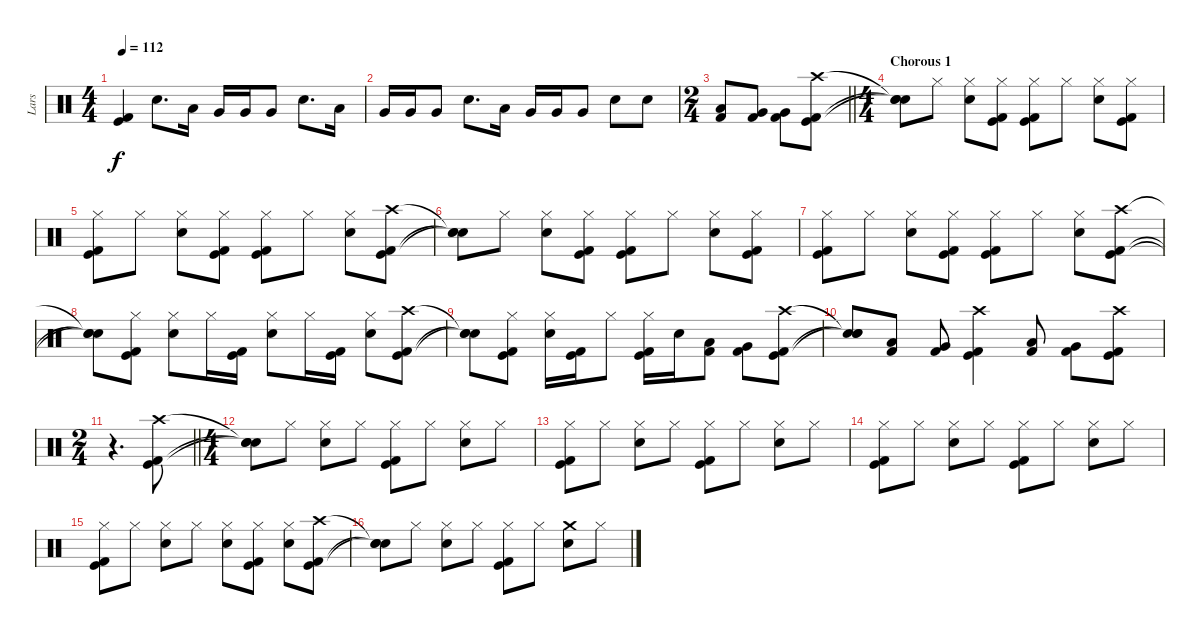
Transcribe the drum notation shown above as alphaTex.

\track ("Lars" "Lars") {instrument percussion}
\staff {score}
\articulation defaults
\ts (4 4)
\tempo 112
\clef neutral
\ks c
("Kick (hit)" "Kick (hit) 2").4{dy f} "Electric Snare (hit)".8{d} "Low Tom (hit)".16 "Very Low Tom (hit)".16 "Very Low Tom (hit)".16 "Very Low Tom (hit)".8 "Electric Snare (hit)".8{d} "Low Tom (hit)".16 |
"Very Low Tom (hit)".16 "Very Low Tom (hit)".16 "Very Low Tom (hit)".8 "Electric Snare (hit)".8{d} "Low Tom (hit)".16 "Very Low Tom (hit)".16 "Very Low Tom (hit)".16 "Very Low Tom (hit)".8 "Electric Snare (hit)".8 "Electric Snare (hit)".8 |
\ts (2 4)
\barLineRight lightlight
("Kick (hit) 2" "Low Tom (hit)").8 ("Kick (hit) 2" "Very Low Tom (hit)").8 ("Kick (hit) 2" "Very Low Tom (hit)").8 ("Crash high (hit)" "Kick (hit)" "Kick (hit) 2").8 |
\ts (4 4)
\section ("" "Chorous 1")
("Snare (hit)"{t} "Snare (hit)"{t} "Snare (hit)"{t}).8 "Hi-Hat (closed)".8 ("Hi-Hat (closed)" "Electric Snare (hit)").8 ("Hi-Hat (closed)" "Kick (hit)" "Kick (hit) 2").8 ("Hi-Hat (closed)" "Kick (hit)" "Kick (hit) 2").8 "Hi-Hat (closed)".8 ("Hi-Hat (closed)" "Electric Snare (hit)").8 ("Hi-Hat (closed)" "Kick (hit)" "Kick (hit) 2").8 |
("Hi-Hat (closed)" "Kick (hit)" "Kick (hit) 2").8 "Hi-Hat (closed)".8 ("Hi-Hat (closed)" "Electric Snare (hit)").8 ("Hi-Hat (closed)" "Kick (hit)" "Kick (hit) 2").8 ("Hi-Hat (closed)" "Kick (hit)" "Kick (hit) 2").8 "Hi-Hat (closed)".8 ("Hi-Hat (closed)" "Electric Snare (hit)").8 ("Crash high (hit)" "Kick (hit)" "Kick (hit) 2").8 |
("Snare (hit)"{t} "Snare (hit)"{t} "Snare (hit)"{t}).8 "Hi-Hat (closed)".8 ("Hi-Hat (closed)" "Electric Snare (hit)").8 ("Hi-Hat (closed)" "Kick (hit)" "Kick (hit) 2").8 ("Hi-Hat (closed)" "Kick (hit)" "Kick (hit) 2").8 "Hi-Hat (closed)".8 ("Hi-Hat (closed)" "Electric Snare (hit)").8 ("Hi-Hat (closed)" "Kick (hit)" "Kick (hit) 2").8 |
("Hi-Hat (closed)" "Kick (hit)" "Kick (hit) 2").8 "Hi-Hat (closed)".8 ("Hi-Hat (closed)" "Electric Snare (hit)").8 ("Hi-Hat (closed)" "Kick (hit)" "Kick (hit) 2").8 ("Hi-Hat (closed)" "Kick (hit)" "Kick (hit) 2").8 "Hi-Hat (closed)".8 ("Hi-Hat (closed)" "Electric Snare (hit)").8 ("Crash high (hit)" "Kick (hit)" "Kick (hit) 2").8 |
("Snare (hit)"{t} "Snare (hit)"{t} "Snare (hit)"{t}).8 ("Hi-Hat (closed)" "Kick (hit)" "Kick (hit) 2").8 ("Hi-Hat (closed)" "Electric Snare (hit)").8 "Hi-Hat (closed)".16 ("Kick (hit)" "Kick (hit) 2").16 ("Hi-Hat (closed)" "Electric Snare (hit)").8 "Hi-Hat (closed)".16 ("Kick (hit)" "Kick (hit) 2").16 ("Hi-Hat (closed)" "Electric Snare (hit)").8 ("Crash high (hit)" "Kick (hit)" "Kick (hit) 2").8 |
("Snare (hit)"{t} "Snare (hit)"{t} "Snare (hit)"{t}).8 ("Hi-Hat (closed)" "Kick (hit)" "Kick (hit) 2").8 ("Hi-Hat (closed)" "Electric Snare (hit)").16 ("Kick (hit)" "Kick (hit) 2").16 "Hi-Hat (closed)".8 ("Hi-Hat (closed)" "Kick (hit)" "Kick (hit) 2").16 "Electric Snare (hit)".16 ("Kick (hit) 2" "Low Tom (hit)").8 ("Kick (hit) 2" "Very Low Tom (hit)").8 ("Crash high (hit)" "Kick (hit)" "Kick (hit) 2").8 |
("Snare (hit)"{t} "Snare (hit)"{t} "Snare (hit)"{t}).8 ("Kick (hit) 2" "Low Tom (hit)").8 ("Kick (hit) 2" "Very Low Tom (hit)").8 ("Crash high (hit)" "Kick (hit)" "Kick (hit) 2").4 ("Kick (hit) 2" "Low Tom (hit)").8 ("Kick (hit) 2" "Very Low Tom (hit)").8 ("Crash high (hit)" "Kick (hit)" "Kick (hit) 2").8 |
\ts (2 4)
\barLineRight lightlight
r.4{d} ("Crash high (hit)" "Kick (hit)" "Kick (hit) 2").8 |
\ts (4 4)
\section ("" "")
("Snare (hit)"{t} "Snare (hit)"{t} "Snare (hit)"{t}).8 "Hi-Hat (closed)".8 ("Hi-Hat (closed)" "Electric Snare (hit)").8 "Hi-Hat (closed)".8 ("Hi-Hat (closed)" "Kick (hit)" "Kick (hit) 2").8 "Hi-Hat (closed)".8 ("Hi-Hat (closed)" "Electric Snare (hit)").8 "Hi-Hat (closed)".8 |
("Hi-Hat (closed)" "Kick (hit)" "Kick (hit) 2").8 "Hi-Hat (closed)".8 ("Hi-Hat (closed)" "Electric Snare (hit)").8 "Hi-Hat (closed)".8 ("Hi-Hat (closed)" "Kick (hit)" "Kick (hit) 2").8 "Hi-Hat (closed)".8 ("Hi-Hat (closed)" "Electric Snare (hit)").8 "Hi-Hat (closed)".8 |
("Hi-Hat (closed)" "Kick (hit)" "Kick (hit) 2").8 "Hi-Hat (closed)".8 ("Hi-Hat (closed)" "Electric Snare (hit)").8 "Hi-Hat (closed)".8 ("Hi-Hat (closed)" "Kick (hit)" "Kick (hit) 2").8 "Hi-Hat (closed)".8 ("Hi-Hat (closed)" "Electric Snare (hit)").8 "Hi-Hat (closed)".8 |
("Hi-Hat (closed)" "Kick (hit)" "Kick (hit) 2").8 "Hi-Hat (closed)".8 ("Hi-Hat (closed)" "Electric Snare (hit)").8 "Hi-Hat (closed)".8 ("Hi-Hat (closed)" "Electric Snare (hit)").8 ("Hi-Hat (closed)" "Kick (hit)" "Kick (hit) 2").8 ("Hi-Hat (closed)" "Electric Snare (hit)").8 ("Crash high (hit)" "Kick (hit)" "Kick (hit) 2").8 |
("Snare (hit)"{t} "Snare (hit)"{t} "Snare (hit)"{t}).8 "Hi-Hat (closed)".8 ("Hi-Hat (closed)" "Electric Snare (hit)").8 "Hi-Hat (closed)".8 ("Hi-Hat (closed)" "Kick (hit)" "Kick (hit) 2").8 "Hi-Hat (closed)".8 ("Crash medium (hit)" "Electric Snare (hit)").8 "Hi-Hat (closed)".8
